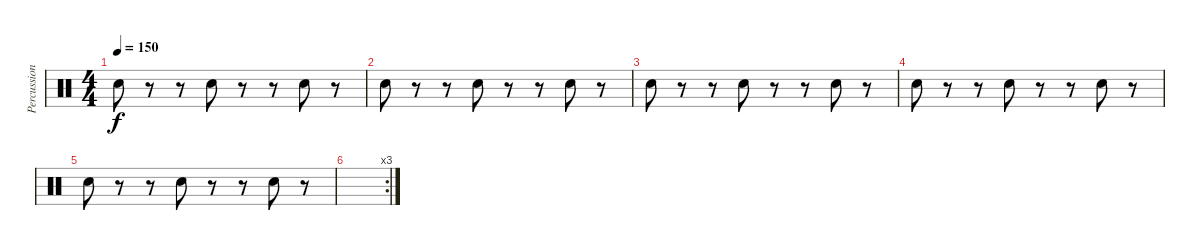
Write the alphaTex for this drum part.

\track ("Percussion" "Percussion") {instrument percussion bank 2}
\staff {score}
\articulation defaults
\ts (4 4)
\tempo 150
\clef neutral
\ks c "Snare (hit) 2".8{dy f}
r.8 r.8 "Snare (hit) 2".8 r.8 r.8 "Snare (hit) 2".8 r.8 |
"Snare (hit) 2".8 r.8 r.8 "Snare (hit) 2".8 r.8 r.8 "Snare (hit) 2".8 r.8 |
"Snare (hit) 2".8 r.8 r.8 "Snare (hit) 2".8 r.8 r.8 "Snare (hit) 2".8 r.8 |
"Snare (hit) 2".8 r.8 r.8 "Snare (hit) 2".8 r.8 r.8 "Snare (hit) 2".8 r.8 |
"Snare (hit) 2".8 r.8 r.8 "Snare (hit) 2".8 r.8 r.8 "Snare (hit) 2".8 r.8 |
\rc 3
